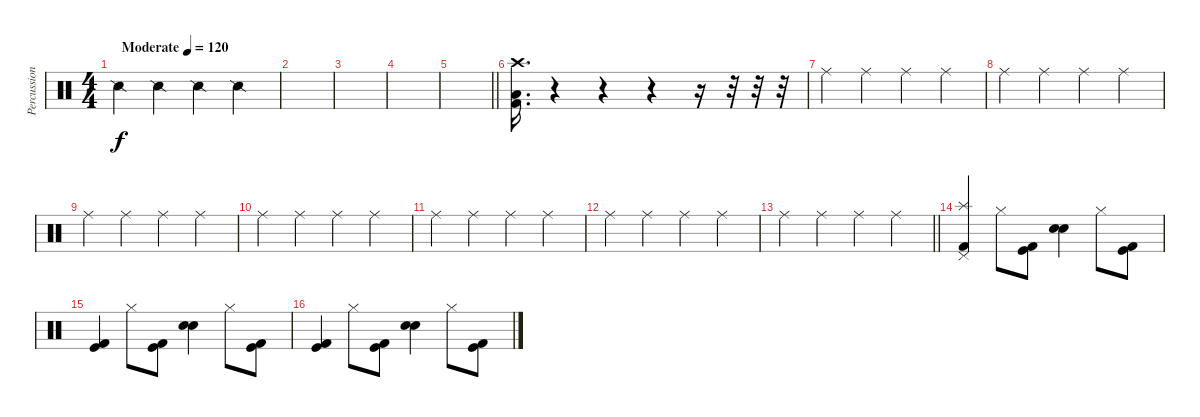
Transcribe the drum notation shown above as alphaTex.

\track ("Percussion" "Percussion") {instrument percussion}
\staff {score}
\articulation defaults
\ts (4 4)
\tempo (120 "Moderate")
\clef neutral
\ks c "Snare (side stick) 2".4{dy f} "Snare (side stick) 2".4 "Snare (side stick) 2".4 "Snare (side stick) 2".4
|
|
|
|
\barLineRight lightlight
|
("Crash high (hit)" "Low Floor Tom (hit)" "Kick (hit) 2").16{d} r.4 r.4 r.4 r.16 r.32 r.32 r.32 |
"Ride (middle)".4 "Ride (middle)".4 "Ride (middle)".4 "Ride (middle)".4 |
"Ride (middle)".4 "Ride (middle)".4 "Ride (middle)".4 "Ride (middle)".4 |
"Ride (middle)".4 "Ride (middle)".4 "Ride (middle)".4 "Ride (middle)".4 |
"Ride (middle)".4 "Ride (middle)".4 "Ride (middle)".4 "Ride (middle)".4 |
"Ride (middle)".4 "Ride (middle)".4 "Ride (middle)".4 "Ride (middle)".4 |
"Ride (middle)".4 "Ride (middle)".4 "Ride (middle)".4 "Ride (middle)".4 |
\barLineRight lightlight "Ride (middle)".4 "Ride (middle)".4 "Ride (middle)".4 "Ride (middle)".4
|
("Splash (hit)" "Kick (hit) 2" "Pedal Hi-Hat (hit)").4 "Hi-Hat (closed)".8 ("Kick (hit)" "Kick (hit) 2").8 ("Snare (hit) 2" "Electric Snare (hit)").4 "Hi-Hat (closed)".8 ("Kick (hit)" "Kick (hit) 2").8 |
("Kick (hit)" "Kick (hit) 2").4 "Hi-Hat (closed)".8 ("Kick (hit)" "Kick (hit) 2").8 ("Snare (hit) 2" "Electric Snare (hit)").4 "Hi-Hat (closed)".8 ("Kick (hit)" "Kick (hit) 2").8 |
("Kick (hit)" "Kick (hit) 2").4 "Hi-Hat (closed)".8 ("Kick (hit)" "Kick (hit) 2").8 ("Snare (hit) 2" "Electric Snare (hit)").4 "Hi-Hat (closed)".8 ("Kick (hit)" "Kick (hit) 2").8
